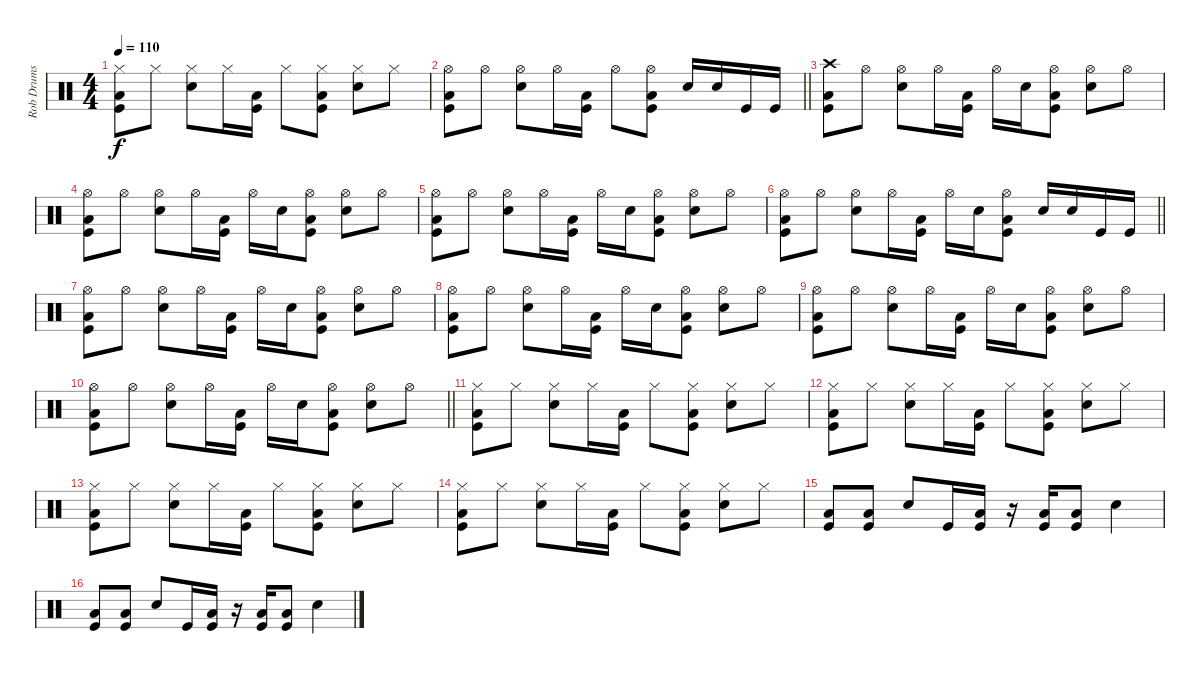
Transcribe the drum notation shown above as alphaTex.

\track ("Rob Drums" "Rob Drums") {instrument percussion}
\staff {score}
\articulation defaults
\ts (4 4)
\tempo 110
\clef neutral
\ks c
("Hi-Hat (closed)" "Kick (hit)" "Low Tom (hit)").8{dy f} "Hi-Hat (closed)".8 ("Hi-Hat (closed)" "Snare (hit) 2").8 "Hi-Hat (closed)".16 ("Kick (hit)" "Low Tom (hit)").16 "Hi-Hat (closed)".8 ("Hi-Hat (closed)" "Kick (hit)" "Low Tom (hit)").8 ("Hi-Hat (closed)" "Snare (hit) 2").8 "Hi-Hat (closed)".8 |
\barLineRight lightlight
("Hi-Hat (open)" "Kick (hit)" "Low Tom (hit)").8 "Hi-Hat (open)".8 ("Hi-Hat (open)" "Snare (hit) 2").8 "Hi-Hat (open)".16 ("Kick (hit)" "Low Tom (hit)").16 "Hi-Hat (open)".8 ("Hi-Hat (open)" "Kick (hit)" "Low Tom (hit)").8 "Snare (hit) 2".16 "Snare (hit) 2".16 "Kick (hit)".16 "Kick (hit)".16 |
("Crash high (hit)" "Kick (hit)" "Low Tom (hit)").8 "Hi-Hat (open)".8 ("Hi-Hat (open)" "Snare (hit) 2").8 "Hi-Hat (open)".16 ("Kick (hit)" "Low Tom (hit)").16 "Hi-Hat (open)".16 "Snare (hit) 2".16 ("Hi-Hat (open)" "Kick (hit)" "Low Tom (hit)").8 ("Hi-Hat (open)" "Snare (hit) 2").8 "Hi-Hat (open)".8 |
("Hi-Hat (open)" "Kick (hit)" "Low Tom (hit)").8 "Hi-Hat (open)".8 ("Hi-Hat (open)" "Snare (hit) 2").8 "Hi-Hat (open)".16 ("Kick (hit)" "Low Tom (hit)").16 "Hi-Hat (open)".16 "Snare (hit) 2".16 ("Hi-Hat (open)" "Kick (hit)" "Low Tom (hit)").8 ("Hi-Hat (open)" "Snare (hit) 2").8 "Hi-Hat (open)".8 |
("Hi-Hat (open)" "Kick (hit)" "Low Tom (hit)").8 "Hi-Hat (open)".8 ("Hi-Hat (open)" "Snare (hit) 2").8 "Hi-Hat (open)".16 ("Kick (hit)" "Low Tom (hit)").16 "Hi-Hat (open)".16 "Snare (hit) 2".16 ("Hi-Hat (open)" "Kick (hit)" "Low Tom (hit)").8 ("Hi-Hat (open)" "Snare (hit) 2").8 "Hi-Hat (open)".8 |
\barLineRight lightlight
("Hi-Hat (open)" "Kick (hit)" "Low Tom (hit)").8 "Hi-Hat (open)".8 ("Hi-Hat (open)" "Snare (hit) 2").8 "Hi-Hat (open)".16 ("Kick (hit)" "Low Tom (hit)").16 "Hi-Hat (open)".16 "Snare (hit) 2".16 ("Hi-Hat (open)" "Kick (hit)" "Low Tom (hit)").8 "Snare (hit) 2".16 "Snare (hit) 2".16 "Kick (hit)".16 "Kick (hit)".16 |
("Hi-Hat (open)" "Kick (hit)" "Low Tom (hit)").8 "Hi-Hat (open)".8 ("Hi-Hat (open)" "Snare (hit) 2").8 "Hi-Hat (open)".16 ("Kick (hit)" "Low Tom (hit)").16 "Hi-Hat (open)".16 "Snare (hit) 2".16 ("Hi-Hat (open)" "Kick (hit)" "Low Tom (hit)").8 ("Hi-Hat (open)" "Snare (hit) 2").8 "Hi-Hat (open)".8 |
("Hi-Hat (open)" "Kick (hit)" "Low Tom (hit)").8 "Hi-Hat (open)".8 ("Hi-Hat (open)" "Snare (hit) 2").8 "Hi-Hat (open)".16 ("Kick (hit)" "Low Tom (hit)").16 "Hi-Hat (open)".16 "Snare (hit) 2".16 ("Hi-Hat (open)" "Kick (hit)" "Low Tom (hit)").8 ("Hi-Hat (open)" "Snare (hit) 2").8 "Hi-Hat (open)".8 |
("Hi-Hat (open)" "Kick (hit)" "Low Tom (hit)").8 "Hi-Hat (open)".8 ("Hi-Hat (open)" "Snare (hit) 2").8 "Hi-Hat (open)".16 ("Kick (hit)" "Low Tom (hit)").16 "Hi-Hat (open)".16 "Snare (hit) 2".16 ("Hi-Hat (open)" "Kick (hit)" "Low Tom (hit)").8 ("Hi-Hat (open)" "Snare (hit) 2").8 "Hi-Hat (open)".8 |
\barLineRight lightlight
("Hi-Hat (open)" "Kick (hit)" "Low Tom (hit)").8 "Hi-Hat (open)".8 ("Hi-Hat (open)" "Snare (hit) 2").8 "Hi-Hat (open)".16 ("Kick (hit)" "Low Tom (hit)").16 "Hi-Hat (open)".16 "Snare (hit) 2".16 ("Hi-Hat (open)" "Kick (hit)" "Low Tom (hit)").8 ("Hi-Hat (open)" "Snare (hit) 2").8 "Hi-Hat (open)".8 |
("Hi-Hat (closed)" "Kick (hit)" "Low Tom (hit)").8 "Hi-Hat (closed)".8 ("Hi-Hat (closed)" "Snare (hit) 2").8 "Hi-Hat (closed)".16 ("Kick (hit)" "Low Tom (hit)").16 "Hi-Hat (closed)".8 ("Hi-Hat (closed)" "Kick (hit)" "Low Tom (hit)").8 ("Hi-Hat (closed)" "Snare (hit) 2").8 "Hi-Hat (closed)".8 |
("Hi-Hat (closed)" "Kick (hit)" "Low Tom (hit)").8 "Hi-Hat (closed)".8 ("Hi-Hat (closed)" "Snare (hit) 2").8 "Hi-Hat (closed)".16 ("Kick (hit)" "Low Tom (hit)").16 "Hi-Hat (closed)".8 ("Hi-Hat (closed)" "Kick (hit)" "Low Tom (hit)").8 ("Hi-Hat (closed)" "Snare (hit) 2").8 "Hi-Hat (closed)".8 |
("Hi-Hat (closed)" "Kick (hit)" "Low Tom (hit)").8 "Hi-Hat (closed)".8 ("Hi-Hat (closed)" "Snare (hit) 2").8 "Hi-Hat (closed)".16 ("Kick (hit)" "Low Tom (hit)").16 "Hi-Hat (closed)".8 ("Hi-Hat (closed)" "Kick (hit)" "Low Tom (hit)").8 ("Hi-Hat (closed)" "Snare (hit) 2").8 "Hi-Hat (closed)".8 |
("Hi-Hat (closed)" "Kick (hit)" "Low Tom (hit)").8 "Hi-Hat (closed)".8 ("Hi-Hat (closed)" "Snare (hit) 2").8 "Hi-Hat (closed)".16 ("Kick (hit)" "Low Tom (hit)").16 "Hi-Hat (closed)".8 ("Hi-Hat (closed)" "Kick (hit)" "Low Tom (hit)").8 ("Hi-Hat (closed)" "Snare (hit) 2").8 "Hi-Hat (closed)".8 |
("Kick (hit)" "Low Tom (hit)").8 ("Kick (hit)" "Low Tom (hit)").8 "Snare (hit) 2".8 "Kick (hit)".16 ("Kick (hit)" "Low Tom (hit)").16 r.16 ("Kick (hit)" "Low Tom (hit)").16 ("Kick (hit)" "Low Tom (hit)").8 "Snare (hit) 2".4 |
("Kick (hit)" "Low Tom (hit)").8 ("Kick (hit)" "Low Tom (hit)").8 "Snare (hit) 2".8 "Kick (hit)".16 ("Kick (hit)" "Low Tom (hit)").16 r.16 ("Kick (hit)" "Low Tom (hit)").16 ("Kick (hit)" "Low Tom (hit)").8 "Snare (hit) 2".4
